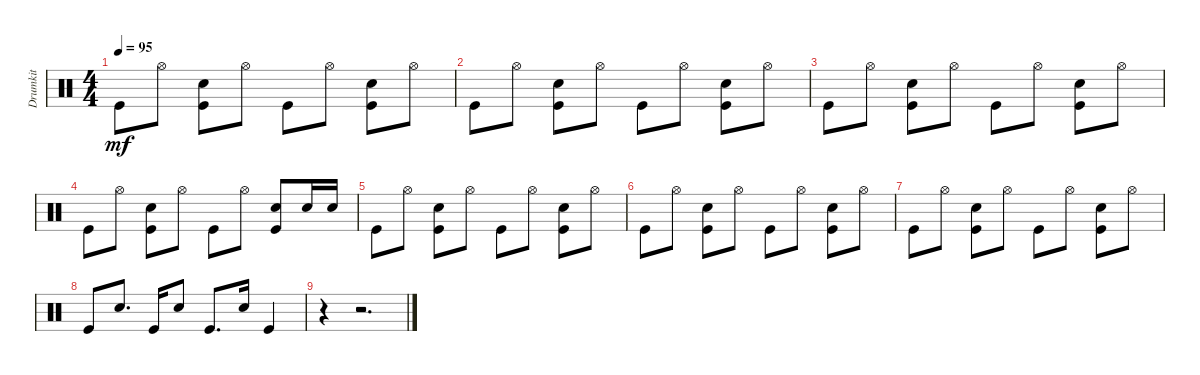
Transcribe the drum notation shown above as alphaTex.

\track ("Drumkit" "Drumkit") {instrument percussion}
\staff {score}
\articulation defaults
\ts (4 4)
\tempo 95
\clef neutral
\ks c "Kick (hit)".8{dy mf} "Hi-Hat (open)".8
("Snare (hit) 2" "Kick (hit)").8 "Hi-Hat (open)".8 "Kick (hit)".8 "Hi-Hat (open)".8 ("Snare (hit) 2" "Kick (hit)").8 "Hi-Hat (open)".8 |
"Kick (hit)".8 "Hi-Hat (open)".8 ("Snare (hit) 2" "Kick (hit)").8 "Hi-Hat (open)".8 "Kick (hit)".8 "Hi-Hat (open)".8 ("Snare (hit) 2" "Kick (hit)").8 "Hi-Hat (open)".8 |
"Kick (hit)".8 "Hi-Hat (open)".8 ("Snare (hit) 2" "Kick (hit)").8 "Hi-Hat (open)".8 "Kick (hit)".8 "Hi-Hat (open)".8 ("Snare (hit) 2" "Kick (hit)").8 "Hi-Hat (open)".8 |
"Kick (hit)".8 "Hi-Hat (open)".8 ("Snare (hit) 2" "Kick (hit)").8 "Hi-Hat (open)".8 "Kick (hit)".8 "Hi-Hat (open)".8 ("Snare (hit) 2" "Kick (hit)").8 "Snare (hit) 2".16 "Snare (hit) 2".16 |
"Kick (hit)".8 "Hi-Hat (open)".8 ("Snare (hit) 2" "Kick (hit)").8 "Hi-Hat (open)".8 "Kick (hit)".8 "Hi-Hat (open)".8 ("Snare (hit) 2" "Kick (hit)").8 "Hi-Hat (open)".8 |
"Kick (hit)".8 "Hi-Hat (open)".8 ("Snare (hit) 2" "Kick (hit)").8 "Hi-Hat (open)".8 "Kick (hit)".8 "Hi-Hat (open)".8 ("Snare (hit) 2" "Kick (hit)").8 "Hi-Hat (open)".8 |
"Kick (hit)".8 "Hi-Hat (open)".8 ("Snare (hit) 2" "Kick (hit)").8 "Hi-Hat (open)".8 "Kick (hit)".8 "Hi-Hat (open)".8 ("Snare (hit) 2" "Kick (hit)").8 "Hi-Hat (open)".8 |
"Kick (hit)".8 "Snare (hit) 2".8{d} "Kick (hit)".16 "Snare (hit) 2".8 "Kick (hit)".8{d} "Snare (hit) 2".16 "Kick (hit)".4 |
r.4 r.2{d}
